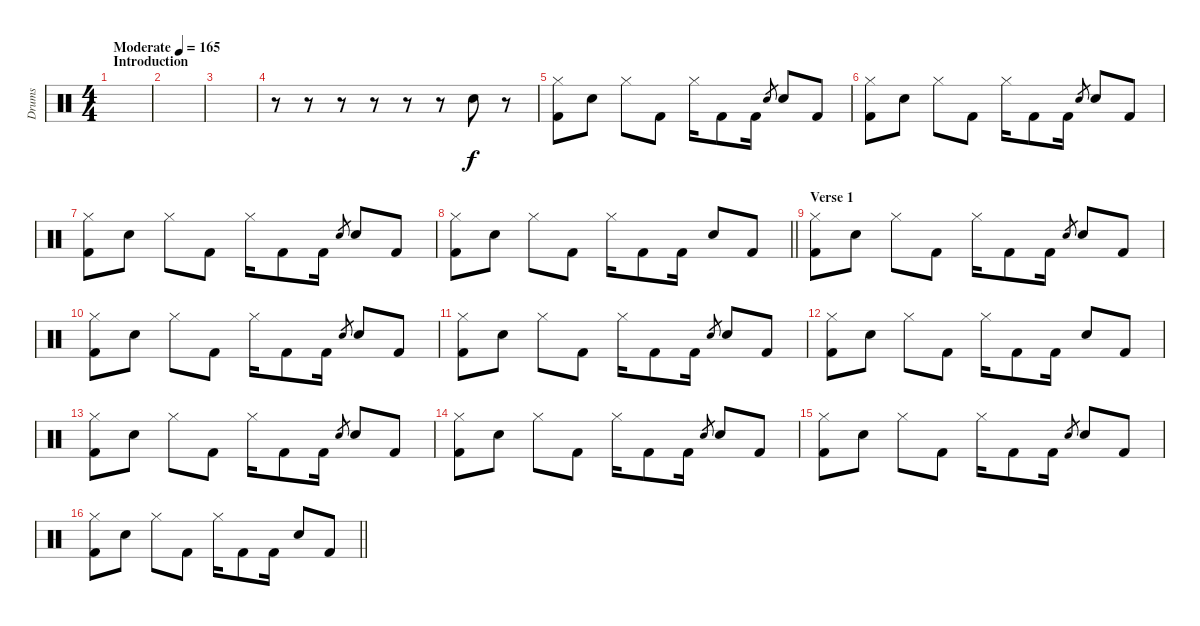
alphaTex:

\track ("Drums" "Drums") {instrument percussion}
\staff {score}
\articulation defaults
\ts (4 4)
\section ("" "Introduction")
\tempo (165 "Moderate")
\clef neutral
\ks c
|
|
|
r.8 r.8 r.8 r.8 r.8 r.8 "Electric Snare (hit)".8 r.8 |
("Hi-Hat (closed)" "Kick (hit) 2").8 "Electric Snare (hit)".8 "Hi-Hat (closed)".8 "Kick (hit) 2".8 "Hi-Hat (closed)".16 "Kick (hit) 2".8 "Kick (hit) 2".16 "Electric Snare (hit)".8{gr} "Electric Snare (hit)".8 "Kick (hit) 2".8 |
("Hi-Hat (closed)" "Kick (hit) 2").8 "Electric Snare (hit)".8 "Hi-Hat (closed)".8 "Kick (hit) 2".8 "Hi-Hat (closed)".16 "Kick (hit) 2".8 "Kick (hit) 2".16 "Electric Snare (hit)".8{gr} "Electric Snare (hit)".8 "Kick (hit) 2".8 |
("Hi-Hat (closed)" "Kick (hit) 2").8 "Electric Snare (hit)".8 "Hi-Hat (closed)".8 "Kick (hit) 2".8 "Hi-Hat (closed)".16 "Kick (hit) 2".8 "Kick (hit) 2".16 "Electric Snare (hit)".8{gr} "Electric Snare (hit)".8 "Kick (hit) 2".8 |
\barLineRight lightlight
("Hi-Hat (closed)" "Kick (hit) 2").8 "Electric Snare (hit)".8 "Hi-Hat (closed)".8 "Kick (hit) 2".8 "Hi-Hat (closed)".16 "Kick (hit) 2".8 "Kick (hit) 2".16 "Electric Snare (hit)".8 "Kick (hit) 2".8 |
\section ("" "Verse 1")
("Hi-Hat (closed)" "Kick (hit) 2").8 "Electric Snare (hit)".8 "Hi-Hat (closed)".8 "Kick (hit) 2".8 "Hi-Hat (closed)".16 "Kick (hit) 2".8 "Kick (hit) 2".16 "Electric Snare (hit)".8{gr} "Electric Snare (hit)".8 "Kick (hit) 2".8 |
("Hi-Hat (closed)" "Kick (hit) 2").8 "Electric Snare (hit)".8 "Hi-Hat (closed)".8 "Kick (hit) 2".8 "Hi-Hat (closed)".16 "Kick (hit) 2".8 "Kick (hit) 2".16 "Electric Snare (hit)".8{gr} "Electric Snare (hit)".8 "Kick (hit) 2".8 |
("Hi-Hat (closed)" "Kick (hit) 2").8 "Electric Snare (hit)".8 "Hi-Hat (closed)".8 "Kick (hit) 2".8 "Hi-Hat (closed)".16 "Kick (hit) 2".8 "Kick (hit) 2".16 "Electric Snare (hit)".8{gr} "Electric Snare (hit)".8 "Kick (hit) 2".8 |
("Hi-Hat (closed)" "Kick (hit) 2").8 "Electric Snare (hit)".8 "Hi-Hat (closed)".8 "Kick (hit) 2".8 "Hi-Hat (closed)".16 "Kick (hit) 2".8 "Kick (hit) 2".16 "Electric Snare (hit)".8 "Kick (hit) 2".8 |
("Hi-Hat (closed)" "Kick (hit) 2").8 "Electric Snare (hit)".8 "Hi-Hat (closed)".8 "Kick (hit) 2".8 "Hi-Hat (closed)".16 "Kick (hit) 2".8 "Kick (hit) 2".16 "Electric Snare (hit)".8{gr} "Electric Snare (hit)".8 "Kick (hit) 2".8 |
("Hi-Hat (closed)" "Kick (hit) 2").8 "Electric Snare (hit)".8 "Hi-Hat (closed)".8 "Kick (hit) 2".8 "Hi-Hat (closed)".16 "Kick (hit) 2".8 "Kick (hit) 2".16 "Electric Snare (hit)".8{gr} "Electric Snare (hit)".8 "Kick (hit) 2".8 |
("Hi-Hat (closed)" "Kick (hit) 2").8 "Electric Snare (hit)".8 "Hi-Hat (closed)".8 "Kick (hit) 2".8 "Hi-Hat (closed)".16 "Kick (hit) 2".8 "Kick (hit) 2".16 "Electric Snare (hit)".8{gr} "Electric Snare (hit)".8 "Kick (hit) 2".8 |
\barLineRight lightlight
("Hi-Hat (closed)" "Kick (hit) 2").8 "Electric Snare (hit)".8 "Hi-Hat (closed)".8 "Kick (hit) 2".8 "Hi-Hat (closed)".16 "Kick (hit) 2".8 "Kick (hit) 2".16 "Electric Snare (hit)".8 "Kick (hit) 2".8
